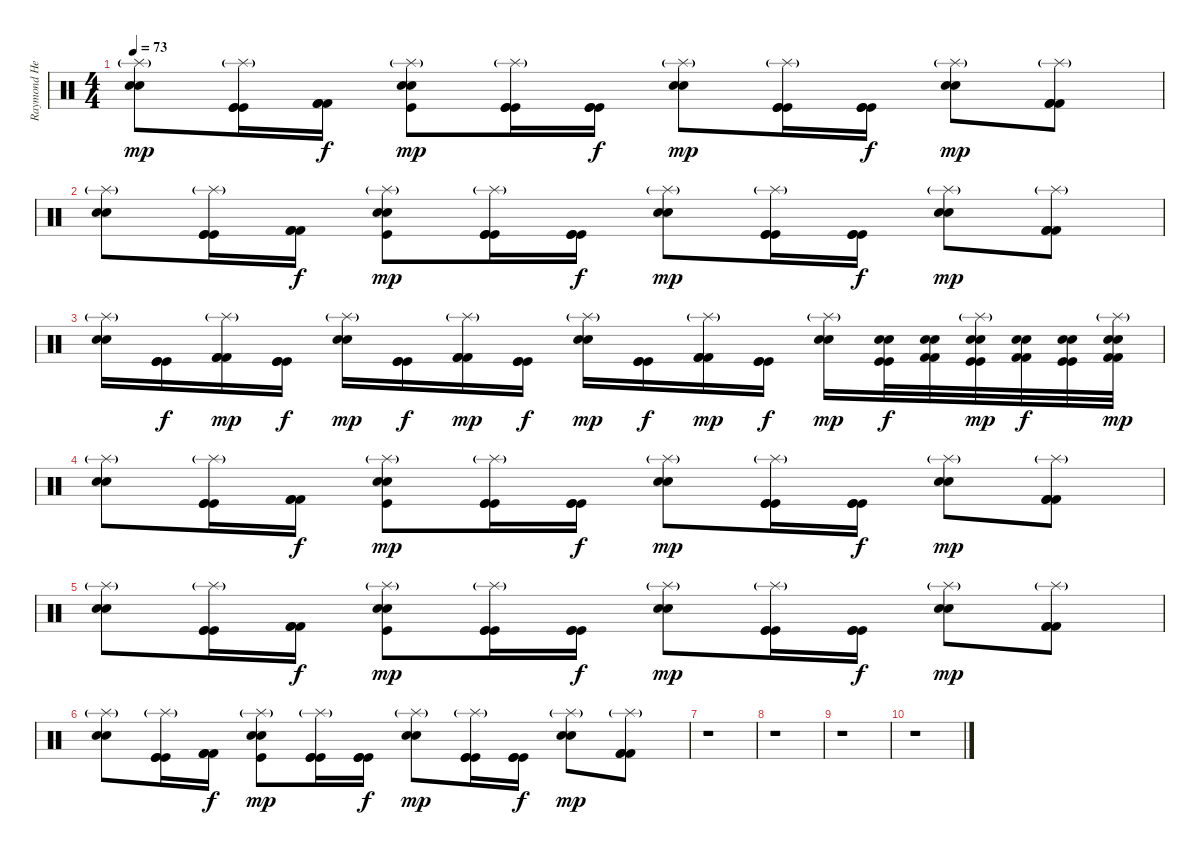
\track ("Raymond Herrera" "Raymond He") {instrument percussion}
\staff {score}
\articulation defaults
\ts (4 4)
\tempo 73
\clef neutral
\ks c
("Splash (hit)"{g} "Electric Snare (hit)" "Electric Snare (hit)").8{dy mp} ("Splash (hit)"{g} "Kick (hit)" "Kick (hit)" "Kick (hit)").16 ("Kick (hit) 2" "Kick (hit) 2" "Kick (hit) 2").16{dy f} ("Splash (hit)"{g} "Electric Snare (hit)" "Electric Snare (hit)" "Kick (hit)").8{dy mp} ("Splash (hit)"{g} "Kick (hit)" "Kick (hit)" "Kick (hit)").16 ("Kick (hit)" "Kick (hit)" "Kick (hit)").16{dy f} ("Splash (hit)"{g} "Electric Snare (hit)" "Electric Snare (hit)").8{dy mp} ("Splash (hit)"{g} "Kick (hit)" "Kick (hit)" "Kick (hit)").16 ("Kick (hit)" "Kick (hit)" "Kick (hit)").16{dy f} ("Splash (hit)"{g} "Electric Snare (hit)" "Electric Snare (hit)").8{dy mp} ("Splash (hit)"{g} "Kick (hit) 2" "Kick (hit) 2" "Kick (hit) 2").8 |
("Splash (hit)"{g} "Electric Snare (hit)" "Electric Snare (hit)").8 ("Splash (hit)"{g} "Kick (hit)" "Kick (hit)" "Kick (hit)").16 ("Kick (hit) 2" "Kick (hit) 2" "Kick (hit) 2").16{dy f} ("Splash (hit)"{g} "Electric Snare (hit)" "Electric Snare (hit)" "Kick (hit)").8{dy mp} ("Splash (hit)"{g} "Kick (hit)" "Kick (hit)" "Kick (hit)").16 ("Kick (hit)" "Kick (hit)" "Kick (hit)").16{dy f} ("Splash (hit)"{g} "Electric Snare (hit)" "Electric Snare (hit)").8{dy mp} ("Splash (hit)"{g} "Kick (hit)" "Kick (hit)" "Kick (hit)").16 ("Kick (hit)" "Kick (hit)" "Kick (hit)").16{dy f} ("Splash (hit)"{g} "Electric Snare (hit)" "Electric Snare (hit)").8{dy mp} ("Splash (hit)"{g} "Kick (hit) 2" "Kick (hit) 2" "Kick (hit) 2").8 |
("Splash (hit)"{g} "Electric Snare (hit)" "Electric Snare (hit)").16 ("Kick (hit)" "Kick (hit)" "Kick (hit)").16{dy f} ("Splash (hit)"{g} "Kick (hit) 2" "Kick (hit) 2" "Kick (hit) 2").16{dy mp} ("Kick (hit)" "Kick (hit)" "Kick (hit)").16{dy f} ("Splash (hit)"{g} "Electric Snare (hit)" "Electric Snare (hit)").16{dy mp} ("Kick (hit)" "Kick (hit)" "Kick (hit)").16{dy f} ("Splash (hit)"{g} "Kick (hit) 2" "Kick (hit) 2" "Kick (hit) 2").16{dy mp} ("Kick (hit)" "Kick (hit)" "Kick (hit)").16{dy f} ("Splash (hit)"{g} "Electric Snare (hit)" "Electric Snare (hit)").16{dy mp} ("Kick (hit)" "Kick (hit)" "Kick (hit)").16{dy f} ("Splash (hit)"{g} "Kick (hit) 2" "Kick (hit) 2" "Kick (hit) 2").16{dy mp} ("Kick (hit)" "Kick (hit)" "Kick (hit)").16{dy f} ("Splash (hit)"{g} "Electric Snare (hit)" "Electric Snare (hit)").16{dy mp} ("Electric Snare (hit)" "Electric Snare (hit)" "Kick (hit)" "Kick (hit)").32{dy f} ("Electric Snare (hit)" "Electric Snare (hit)" "Kick (hit) 2" "Kick (hit) 2").32 ("Splash (hit)"{g} "Electric Snare (hit)" "Electric Snare (hit)" "Kick (hit)" "Kick (hit)").32{dy mp} ("Electric Snare (hit)" "Electric Snare (hit)" "Kick (hit) 2" "Kick (hit) 2").32{dy f} ("Electric Snare (hit)" "Electric Snare (hit)" "Kick (hit)" "Kick (hit)").32 ("Splash (hit)"{g} "Electric Snare (hit)" "Electric Snare (hit)" "Kick (hit) 2" "Kick (hit) 2").32{dy mp} |
("Splash (hit)"{g} "Electric Snare (hit)" "Electric Snare (hit)").8 ("Splash (hit)"{g} "Kick (hit)" "Kick (hit)" "Kick (hit)").16 ("Kick (hit) 2" "Kick (hit) 2" "Kick (hit) 2").16{dy f} ("Splash (hit)"{g} "Electric Snare (hit)" "Electric Snare (hit)" "Kick (hit)").8{dy mp} ("Splash (hit)"{g} "Kick (hit)" "Kick (hit)" "Kick (hit)").16 ("Kick (hit)" "Kick (hit)" "Kick (hit)").16{dy f} ("Splash (hit)"{g} "Electric Snare (hit)" "Electric Snare (hit)").8{dy mp} ("Splash (hit)"{g} "Kick (hit)" "Kick (hit)" "Kick (hit)").16 ("Kick (hit)" "Kick (hit)" "Kick (hit)").16{dy f} ("Splash (hit)"{g} "Electric Snare (hit)" "Electric Snare (hit)").8{dy mp} ("Splash (hit)"{g} "Kick (hit) 2" "Kick (hit) 2" "Kick (hit) 2").8 |
("Splash (hit)"{g} "Electric Snare (hit)" "Electric Snare (hit)").8 ("Splash (hit)"{g} "Kick (hit)" "Kick (hit)" "Kick (hit)").16 ("Kick (hit) 2" "Kick (hit) 2" "Kick (hit) 2").16{dy f} ("Splash (hit)"{g} "Electric Snare (hit)" "Electric Snare (hit)" "Kick (hit)").8{dy mp} ("Splash (hit)"{g} "Kick (hit)" "Kick (hit)" "Kick (hit)").16 ("Kick (hit)" "Kick (hit)" "Kick (hit)").16{dy f} ("Splash (hit)"{g} "Electric Snare (hit)" "Electric Snare (hit)").8{dy mp} ("Splash (hit)"{g} "Kick (hit)" "Kick (hit)" "Kick (hit)").16 ("Kick (hit)" "Kick (hit)" "Kick (hit)").16{dy f} ("Splash (hit)"{g} "Electric Snare (hit)" "Electric Snare (hit)").8{dy mp} ("Splash (hit)"{g} "Kick (hit) 2" "Kick (hit) 2" "Kick (hit) 2").8 |
("Splash (hit)"{g} "Electric Snare (hit)" "Electric Snare (hit)").8 ("Splash (hit)"{g} "Kick (hit)" "Kick (hit)" "Kick (hit)").16 ("Kick (hit) 2" "Kick (hit) 2" "Kick (hit) 2").16{dy f} ("Splash (hit)"{g} "Electric Snare (hit)" "Electric Snare (hit)" "Kick (hit)").8{dy mp} ("Splash (hit)"{g} "Kick (hit)" "Kick (hit)" "Kick (hit)").16 ("Kick (hit)" "Kick (hit)" "Kick (hit)").16{dy f} ("Splash (hit)"{g} "Electric Snare (hit)" "Electric Snare (hit)").8{dy mp} ("Splash (hit)"{g} "Kick (hit)" "Kick (hit)" "Kick (hit)").16 ("Kick (hit)" "Kick (hit)" "Kick (hit)").16{dy f} ("Splash (hit)"{g} "Electric Snare (hit)" "Electric Snare (hit)").8{dy mp} ("Splash (hit)"{g} "Kick (hit) 2" "Kick (hit) 2" "Kick (hit) 2").8 |
r.1 |
r.1 |
r.1 |
r.1
